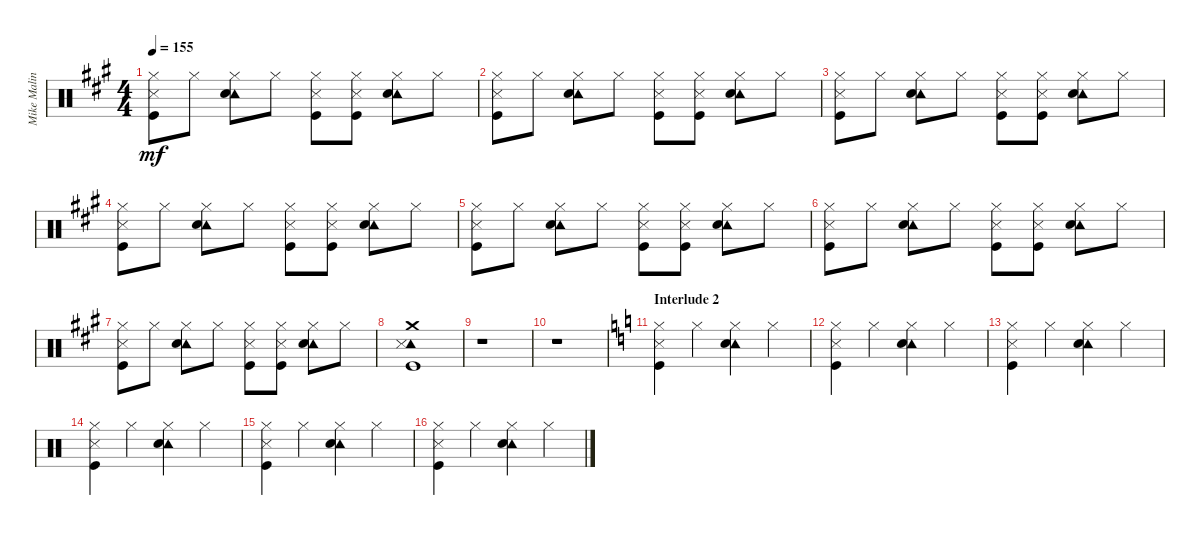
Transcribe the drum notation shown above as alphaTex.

\track ("Mike Malinin - Drums" "Mike Malin") {instrument percussion}
\staff {score}
\articulation defaults
\ts (4 4)
\tempo 155
\clef neutral
\ks a
("Hi-Hat (closed)" "Metronome (hit)" "Kick (hit)").8{dy mf} "Hi-Hat (closed)".8 ("Tambourine (hit)" "Hi-Hat (closed)" "Electric Snare (hit)").8 "Hi-Hat (closed)".8 ("Hi-Hat (closed)" "Metronome (hit)" "Kick (hit)").8 ("Hi-Hat (closed)" "Metronome (hit)" "Kick (hit)").8 ("Tambourine (hit)" "Hi-Hat (closed)" "Electric Snare (hit)").8 "Hi-Hat (closed)".8 |
("Hi-Hat (closed)" "Metronome (hit)" "Kick (hit)").8 "Hi-Hat (closed)".8 ("Tambourine (hit)" "Hi-Hat (closed)" "Electric Snare (hit)").8 "Hi-Hat (closed)".8 ("Hi-Hat (closed)" "Metronome (hit)" "Kick (hit)").8 ("Hi-Hat (closed)" "Metronome (hit)" "Kick (hit)").8 ("Tambourine (hit)" "Hi-Hat (closed)" "Electric Snare (hit)").8 "Hi-Hat (closed)".8 |
("Hi-Hat (closed)" "Metronome (hit)" "Kick (hit)").8 "Hi-Hat (closed)".8 ("Tambourine (hit)" "Hi-Hat (closed)" "Electric Snare (hit)").8 "Hi-Hat (closed)".8 ("Hi-Hat (closed)" "Metronome (hit)" "Kick (hit)").8 ("Hi-Hat (closed)" "Metronome (hit)" "Kick (hit)").8 ("Tambourine (hit)" "Hi-Hat (closed)" "Electric Snare (hit)").8 "Hi-Hat (closed)".8 |
("Hi-Hat (closed)" "Metronome (hit)" "Kick (hit)").8 "Hi-Hat (closed)".8 ("Tambourine (hit)" "Hi-Hat (closed)" "Electric Snare (hit)").8 "Hi-Hat (closed)".8 ("Hi-Hat (closed)" "Metronome (hit)" "Kick (hit)").8 ("Hi-Hat (closed)" "Metronome (hit)" "Kick (hit)").8 ("Tambourine (hit)" "Hi-Hat (closed)" "Electric Snare (hit)").8 "Hi-Hat (closed)".8 |
("Hi-Hat (closed)" "Metronome (hit)" "Kick (hit)").8 "Hi-Hat (closed)".8 ("Tambourine (hit)" "Hi-Hat (closed)" "Electric Snare (hit)").8 "Hi-Hat (closed)".8 ("Hi-Hat (closed)" "Metronome (hit)" "Kick (hit)").8 ("Hi-Hat (closed)" "Metronome (hit)" "Kick (hit)").8 ("Tambourine (hit)" "Hi-Hat (closed)" "Electric Snare (hit)").8 "Hi-Hat (closed)".8 |
("Hi-Hat (closed)" "Metronome (hit)" "Kick (hit)").8 "Hi-Hat (closed)".8 ("Tambourine (hit)" "Hi-Hat (closed)" "Electric Snare (hit)").8 "Hi-Hat (closed)".8 ("Hi-Hat (closed)" "Metronome (hit)" "Kick (hit)").8 ("Hi-Hat (closed)" "Metronome (hit)" "Kick (hit)").8 ("Tambourine (hit)" "Hi-Hat (closed)" "Electric Snare (hit)").8 "Hi-Hat (closed)".8 |
("Hi-Hat (closed)" "Metronome (hit)" "Kick (hit)").8 "Hi-Hat (closed)".8 ("Tambourine (hit)" "Hi-Hat (closed)" "Electric Snare (hit)").8 "Hi-Hat (closed)".8 ("Hi-Hat (closed)" "Metronome (hit)" "Kick (hit)").8 ("Hi-Hat (closed)" "Metronome (hit)" "Kick (hit)").8 ("Tambourine (hit)" "Hi-Hat (closed)" "Electric Snare (hit)").8 "Hi-Hat (closed)".8 |
("Tambourine (hit)" "Crash medium (hit)" "Metronome (hit)" "Kick (hit)").1 |
r.1 |
r.1 |
\section ("" "Interlude 2")
\ks c
("Hi-Hat (closed)" "Metronome (hit)" "Kick (hit)").4 "Hi-Hat (closed)".4 ("Tambourine (hit)" "Hi-Hat (closed)" "Electric Snare (hit)").4 "Hi-Hat (closed)".4 |
("Hi-Hat (closed)" "Metronome (hit)" "Kick (hit)").4 "Hi-Hat (closed)".4 ("Tambourine (hit)" "Hi-Hat (closed)" "Electric Snare (hit)").4 "Hi-Hat (closed)".4 |
("Hi-Hat (closed)" "Metronome (hit)" "Kick (hit)").4 "Hi-Hat (closed)".4 ("Tambourine (hit)" "Hi-Hat (closed)" "Electric Snare (hit)").4 "Hi-Hat (closed)".4 |
("Hi-Hat (closed)" "Metronome (hit)" "Kick (hit)").4 "Hi-Hat (closed)".4 ("Tambourine (hit)" "Hi-Hat (closed)" "Electric Snare (hit)").4 "Hi-Hat (closed)".4 |
("Hi-Hat (closed)" "Metronome (hit)" "Kick (hit)").4 "Hi-Hat (closed)".4 ("Tambourine (hit)" "Hi-Hat (closed)" "Electric Snare (hit)").4 "Hi-Hat (closed)".4 |
("Hi-Hat (closed)" "Metronome (hit)" "Kick (hit)").4 "Hi-Hat (closed)".4 ("Tambourine (hit)" "Hi-Hat (closed)" "Electric Snare (hit)").4 "Hi-Hat (closed)".4
